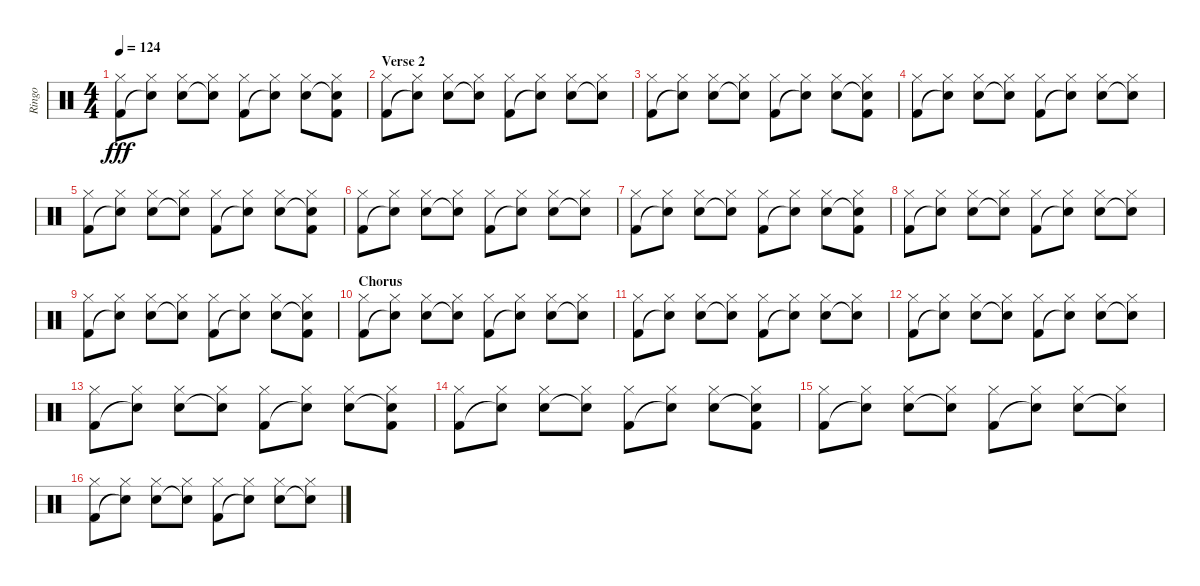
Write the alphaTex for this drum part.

\track ("Ringo" "Ringo") {instrument percussion}
\staff {score}
\articulation defaults
\ts (4 4)
\tempo 124
\clef neutral
\ks c
("Hi-Hat (closed)" "Kick (hit) 2").8{dy fff} ("Hi-Hat (closed)" "Snare (hit)"{t}).8 ("Hi-Hat (closed)" "Snare (hit) 2").8 ("Hi-Hat (closed)" "Snare (hit)"{t}).8 ("Hi-Hat (closed)" "Kick (hit) 2").8 ("Hi-Hat (closed)" "Snare (hit)"{t}).8 ("Hi-Hat (closed)" "Snare (hit) 2").8 ("Hi-Hat (closed)" "Snare (hit)"{t} "Kick (hit) 2").8 |
\section ("" "Verse 2")
("Hi-Hat (closed)" "Kick (hit) 2").8 ("Hi-Hat (closed)" "Snare (hit)"{t}).8 ("Hi-Hat (closed)" "Snare (hit) 2").8 ("Hi-Hat (closed)" "Snare (hit)"{t}).8 ("Hi-Hat (closed)" "Kick (hit) 2").8 ("Hi-Hat (closed)" "Snare (hit)"{t}).8 ("Hi-Hat (closed)" "Snare (hit) 2").8 ("Hi-Hat (closed)" "Snare (hit)"{t}).8 |
("Hi-Hat (closed)" "Kick (hit) 2").8 ("Hi-Hat (closed)" "Snare (hit)"{t}).8 ("Hi-Hat (closed)" "Snare (hit) 2").8 ("Hi-Hat (closed)" "Snare (hit)"{t}).8 ("Hi-Hat (closed)" "Kick (hit) 2").8 ("Hi-Hat (closed)" "Snare (hit)"{t}).8 ("Hi-Hat (closed)" "Snare (hit) 2").8 ("Hi-Hat (closed)" "Snare (hit)"{t} "Kick (hit) 2").8 |
("Hi-Hat (closed)" "Kick (hit) 2").8 ("Hi-Hat (closed)" "Snare (hit)"{t}).8 ("Hi-Hat (closed)" "Snare (hit) 2").8 ("Hi-Hat (closed)" "Snare (hit)"{t}).8 ("Hi-Hat (closed)" "Kick (hit) 2").8 ("Hi-Hat (closed)" "Snare (hit)"{t}).8 ("Hi-Hat (closed)" "Snare (hit) 2").8 ("Hi-Hat (closed)" "Snare (hit)"{t}).8 |
("Hi-Hat (closed)" "Kick (hit) 2").8 ("Hi-Hat (closed)" "Snare (hit)"{t}).8 ("Hi-Hat (closed)" "Snare (hit) 2").8 ("Hi-Hat (closed)" "Snare (hit)"{t}).8 ("Hi-Hat (closed)" "Kick (hit) 2").8 ("Hi-Hat (closed)" "Snare (hit)"{t}).8 ("Hi-Hat (closed)" "Snare (hit) 2").8 ("Hi-Hat (closed)" "Snare (hit)"{t} "Kick (hit) 2").8 |
("Hi-Hat (closed)" "Kick (hit) 2").8 ("Hi-Hat (closed)" "Snare (hit)"{t}).8 ("Hi-Hat (closed)" "Snare (hit) 2").8 ("Hi-Hat (closed)" "Snare (hit)"{t}).8 ("Hi-Hat (closed)" "Kick (hit) 2").8 ("Hi-Hat (closed)" "Snare (hit)"{t}).8 ("Hi-Hat (closed)" "Snare (hit) 2").8 ("Hi-Hat (closed)" "Snare (hit)"{t}).8 |
("Hi-Hat (closed)" "Kick (hit) 2").8 ("Hi-Hat (closed)" "Snare (hit)"{t}).8 ("Hi-Hat (closed)" "Snare (hit) 2").8 ("Hi-Hat (closed)" "Snare (hit)"{t}).8 ("Hi-Hat (closed)" "Kick (hit) 2").8 ("Hi-Hat (closed)" "Snare (hit)"{t}).8 ("Hi-Hat (closed)" "Snare (hit) 2").8 ("Hi-Hat (closed)" "Snare (hit)"{t} "Kick (hit) 2").8 |
("Hi-Hat (closed)" "Kick (hit) 2").8 ("Hi-Hat (closed)" "Snare (hit)"{t}).8 ("Hi-Hat (closed)" "Snare (hit) 2").8 ("Hi-Hat (closed)" "Snare (hit)"{t}).8 ("Hi-Hat (closed)" "Kick (hit) 2").8 ("Hi-Hat (closed)" "Snare (hit)"{t}).8 ("Hi-Hat (closed)" "Snare (hit) 2").8 ("Hi-Hat (closed)" "Snare (hit)"{t}).8 |
("Hi-Hat (closed)" "Kick (hit) 2").8 ("Hi-Hat (closed)" "Snare (hit)"{t}).8 ("Hi-Hat (closed)" "Snare (hit) 2").8 ("Hi-Hat (closed)" "Snare (hit)"{t}).8 ("Hi-Hat (closed)" "Kick (hit) 2").8 ("Hi-Hat (closed)" "Snare (hit)"{t}).8 ("Hi-Hat (closed)" "Snare (hit) 2").8 ("Hi-Hat (closed)" "Snare (hit)"{t} "Kick (hit) 2").8 |
\section ("" "Chorus")
("Hi-Hat (closed)" "Kick (hit) 2").8 ("Hi-Hat (closed)" "Snare (hit)"{t}).8 ("Hi-Hat (closed)" "Snare (hit) 2").8 ("Hi-Hat (closed)" "Snare (hit)"{t}).8 ("Hi-Hat (closed)" "Kick (hit) 2").8 ("Hi-Hat (closed)" "Snare (hit)"{t}).8 ("Hi-Hat (closed)" "Snare (hit) 2").8 ("Hi-Hat (closed)" "Snare (hit)"{t}).8 |
("Hi-Hat (closed)" "Kick (hit) 2").8 ("Hi-Hat (closed)" "Snare (hit)"{t}).8 ("Hi-Hat (closed)" "Snare (hit) 2").8 ("Hi-Hat (closed)" "Snare (hit)"{t}).8 ("Hi-Hat (closed)" "Kick (hit) 2").8 ("Hi-Hat (closed)" "Snare (hit)"{t}).8 ("Hi-Hat (closed)" "Snare (hit) 2").8 ("Hi-Hat (closed)" "Snare (hit)"{t}).8 |
("Hi-Hat (closed)" "Kick (hit) 2").8 ("Hi-Hat (closed)" "Snare (hit)"{t}).8 ("Hi-Hat (closed)" "Snare (hit) 2").8 ("Hi-Hat (closed)" "Snare (hit)"{t}).8 ("Hi-Hat (closed)" "Kick (hit) 2").8 ("Hi-Hat (closed)" "Snare (hit)"{t}).8 ("Hi-Hat (closed)" "Snare (hit) 2").8 ("Hi-Hat (closed)" "Snare (hit)"{t}).8 |
("Hi-Hat (closed)" "Kick (hit) 2").8 ("Hi-Hat (closed)" "Snare (hit)"{t}).8 ("Hi-Hat (closed)" "Snare (hit) 2").8 ("Hi-Hat (closed)" "Snare (hit)"{t}).8 ("Hi-Hat (closed)" "Kick (hit) 2").8 ("Hi-Hat (closed)" "Snare (hit)"{t}).8 ("Hi-Hat (closed)" "Snare (hit) 2").8 ("Hi-Hat (closed)" "Snare (hit)"{t} "Kick (hit) 2").8 |
("Hi-Hat (closed)" "Kick (hit) 2").8 ("Hi-Hat (closed)" "Snare (hit)"{t}).8 ("Hi-Hat (closed)" "Snare (hit) 2").8 ("Hi-Hat (closed)" "Snare (hit)"{t}).8 ("Hi-Hat (closed)" "Kick (hit) 2").8 ("Hi-Hat (closed)" "Snare (hit)"{t}).8 ("Hi-Hat (closed)" "Snare (hit) 2").8 ("Hi-Hat (closed)" "Snare (hit)"{t} "Kick (hit) 2").8 |
("Hi-Hat (closed)" "Kick (hit) 2").8 ("Hi-Hat (closed)" "Snare (hit)"{t}).8 ("Hi-Hat (closed)" "Snare (hit) 2").8 ("Hi-Hat (closed)" "Snare (hit)"{t}).8 ("Hi-Hat (closed)" "Kick (hit) 2").8 ("Hi-Hat (closed)" "Snare (hit)"{t}).8 ("Hi-Hat (closed)" "Snare (hit) 2").8 ("Hi-Hat (closed)" "Snare (hit)"{t}).8 |
("Hi-Hat (closed)" "Kick (hit) 2").8 ("Hi-Hat (closed)" "Snare (hit)"{t}).8 ("Hi-Hat (closed)" "Snare (hit) 2").8 ("Hi-Hat (closed)" "Snare (hit)"{t}).8 ("Hi-Hat (closed)" "Kick (hit) 2").8 ("Hi-Hat (closed)" "Snare (hit)"{t}).8 ("Hi-Hat (closed)" "Snare (hit) 2").8 ("Hi-Hat (closed)" "Snare (hit)"{t}).8
